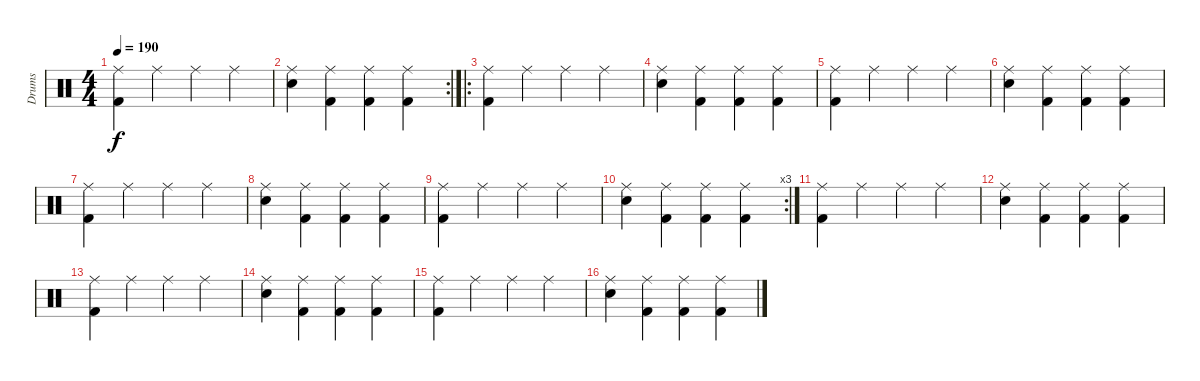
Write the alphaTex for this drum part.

\track ("Drums" "Drums") {instrument percussion}
\staff {score}
\articulation defaults
\ts (4 4)
\tempo 190
\clef neutral
\ks c
("Ride (middle)" "Kick (hit) 2").4{dy f} "Ride (middle)".4 "Ride (middle)".4 "Ride (middle)".4 |
\rc 2
("Ride (middle)" "Electric Snare (hit)").4 ("Ride (middle)" "Kick (hit) 2").4 ("Ride (middle)" "Kick (hit) 2").4 ("Ride (middle)" "Kick (hit) 2").4 |
\ro
("Ride (middle)" "Kick (hit) 2").4 "Ride (middle)".4 "Ride (middle)".4 "Ride (middle)".4 |
("Ride (middle)" "Electric Snare (hit)").4 ("Ride (middle)" "Kick (hit) 2").4 ("Ride (middle)" "Kick (hit) 2").4 ("Ride (middle)" "Kick (hit) 2").4 |
("Ride (middle)" "Kick (hit) 2").4 "Ride (middle)".4 "Ride (middle)".4 "Ride (middle)".4 |
("Ride (middle)" "Electric Snare (hit)").4 ("Ride (middle)" "Kick (hit) 2").4 ("Ride (middle)" "Kick (hit) 2").4 ("Ride (middle)" "Kick (hit) 2").4 |
("Ride (middle)" "Kick (hit) 2").4 "Ride (middle)".4 "Ride (middle)".4 "Ride (middle)".4 |
("Ride (middle)" "Electric Snare (hit)").4 ("Ride (middle)" "Kick (hit) 2").4 ("Ride (middle)" "Kick (hit) 2").4 ("Ride (middle)" "Kick (hit) 2").4 |
("Ride (middle)" "Kick (hit) 2").4 "Ride (middle)".4 "Ride (middle)".4 "Ride (middle)".4 |
\rc 3
("Ride (middle)" "Electric Snare (hit)").4 ("Ride (middle)" "Kick (hit) 2").4 ("Ride (middle)" "Kick (hit) 2").4 ("Ride (middle)" "Kick (hit) 2").4 |
("Ride (middle)" "Kick (hit) 2").4 "Ride (middle)".4 "Ride (middle)".4 "Ride (middle)".4 |
("Ride (middle)" "Electric Snare (hit)").4 ("Ride (middle)" "Kick (hit) 2").4 ("Ride (middle)" "Kick (hit) 2").4 ("Ride (middle)" "Kick (hit) 2").4 |
("Ride (middle)" "Kick (hit) 2").4 "Ride (middle)".4 "Ride (middle)".4 "Ride (middle)".4 |
("Ride (middle)" "Electric Snare (hit)").4 ("Ride (middle)" "Kick (hit) 2").4 ("Ride (middle)" "Kick (hit) 2").4 ("Ride (middle)" "Kick (hit) 2").4 |
("Ride (middle)" "Kick (hit) 2").4 "Ride (middle)".4 "Ride (middle)".4 "Ride (middle)".4 |
("Ride (middle)" "Electric Snare (hit)").4 ("Ride (middle)" "Kick (hit) 2").4 ("Ride (middle)" "Kick (hit) 2").4 ("Ride (middle)" "Kick (hit) 2").4
